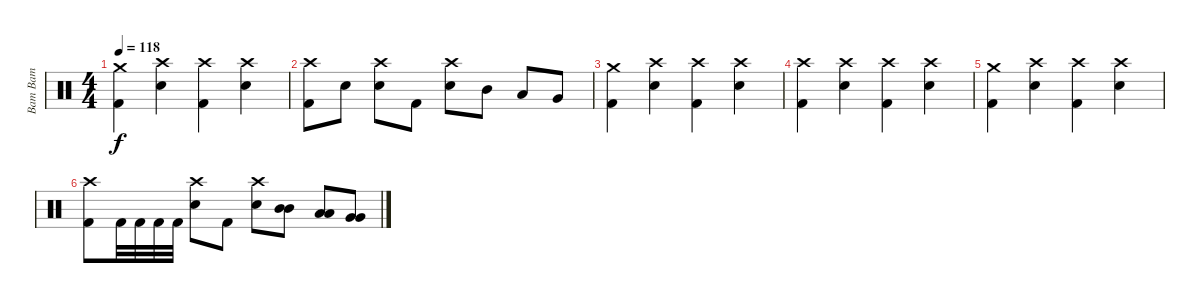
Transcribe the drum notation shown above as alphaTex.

\track ("Bam Bam" "Bam Bam") {instrument percussion}
\staff {score}
\articulation defaults
\ts (4 4)
\tempo 118
\clef neutral
\ks c
("Crash medium (hit)" "Kick (hit) 2").4{dy f} ("Crash high (hit)" "Electric Snare (hit)").4 ("Crash high (hit)" "Kick (hit) 2").4 ("Crash high (hit)" "Electric Snare (hit)").4 |
("Crash high (hit)" "Kick (hit) 2").8 "Electric Snare (hit)".8 ("Crash high (hit)" "Electric Snare (hit)").8 "Kick (hit) 2".8 ("Crash high (hit)" "Electric Snare (hit)").8 "Mid Tom (hit)".8 "Low Tom (hit)".8 "Very Low Tom (hit)".8 |
("Crash medium (hit)" "Kick (hit) 2").4 ("Crash high (hit)" "Electric Snare (hit)").4 ("Crash high (hit)" "Kick (hit) 2").4 ("Crash high (hit)" "Electric Snare (hit)").4 |
("Crash high (hit)" "Kick (hit) 2").4 ("Crash high (hit)" "Electric Snare (hit)").4 ("Crash high (hit)" "Kick (hit) 2").4 ("Crash high (hit)" "Electric Snare (hit)").4 |
("Crash medium (hit)" "Kick (hit) 2").4 ("Crash high (hit)" "Electric Snare (hit)").4 ("Crash high (hit)" "Kick (hit) 2").4 ("Crash high (hit)" "Electric Snare (hit)").4 |
("Crash high (hit)" "Kick (hit) 2").8 "Kick (hit) 2".32 "Kick (hit) 2".32 "Kick (hit) 2".32 "Kick (hit) 2".32 ("Crash high (hit)" "Electric Snare (hit)").8 "Kick (hit) 2".8 ("Crash high (hit)" "Electric Snare (hit)").8 ("Mid Tom (hit)" "Mid Tom (hit)").8 ("Low Tom (hit)" "Low Tom (hit)").8 ("Very Low Tom (hit)" "Very Low Tom (hit)").8
